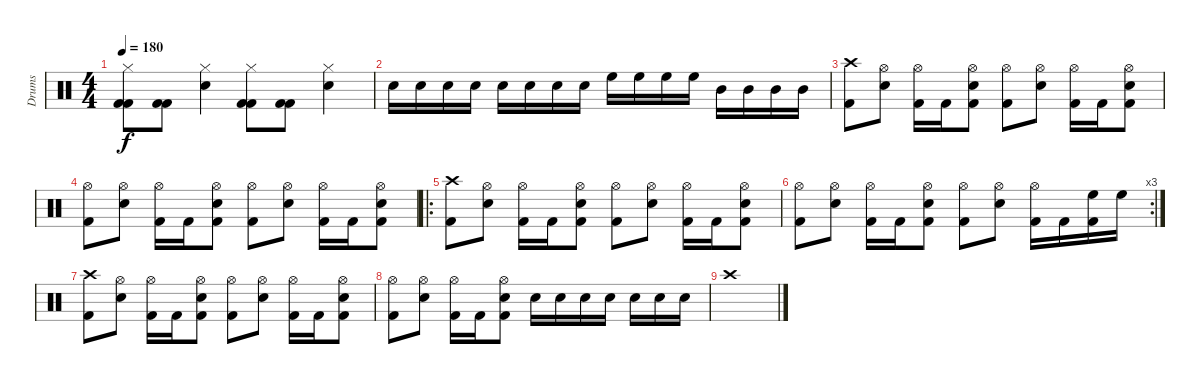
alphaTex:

\track ("Drums" "Drums") {instrument percussion}
\staff {score}
\articulation defaults
\ts (4 4)
\tempo 180
\clef neutral
\ks c
("Hi-Hat (closed)" "Kick (hit) 2" "Kick (hit) 2").8{dy f} ("Kick (hit) 2" "Kick (hit) 2").8 ("Hi-Hat (closed)" "Snare (hit) 2").4 ("Hi-Hat (closed)" "Kick (hit) 2" "Kick (hit) 2").8 ("Kick (hit) 2" "Kick (hit) 2").8 ("Hi-Hat (closed)" "Snare (hit) 2").4 |
"Snare (hit) 2".16 "Snare (hit) 2".16 "Snare (hit) 2".16 "Snare (hit) 2".16 "Snare (hit) 2".16 "Snare (hit) 2".16 "Snare (hit) 2".16 "Snare (hit) 2".16 "High Floor Tom (hit)".16 "High Floor Tom (hit)".16 "High Floor Tom (hit)".16 "High Floor Tom (hit)".16 "Mid Tom (hit)".16 "Mid Tom (hit)".16 "Mid Tom (hit)".16 "Mid Tom (hit)".16 |
("Crash high (hit)" "Kick (hit) 2").8 ("Hi-Hat (open)" "Snare (hit) 2").8 ("Hi-Hat (open)" "Kick (hit) 2").16 "Kick (hit) 2".16 ("Hi-Hat (open)" "Snare (hit) 2" "Kick (hit) 2").8 ("Hi-Hat (open)" "Kick (hit) 2").8 ("Hi-Hat (open)" "Snare (hit) 2").8 ("Hi-Hat (open)" "Kick (hit) 2").16 "Kick (hit) 2".16 ("Hi-Hat (open)" "Snare (hit) 2" "Kick (hit) 2").8 |
("Hi-Hat (open)" "Kick (hit) 2").8 ("Hi-Hat (open)" "Snare (hit) 2").8 ("Hi-Hat (open)" "Kick (hit) 2").16 "Kick (hit) 2".16 ("Hi-Hat (open)" "Snare (hit) 2" "Kick (hit) 2").8 ("Hi-Hat (open)" "Kick (hit) 2").8 ("Hi-Hat (open)" "Snare (hit) 2").8 ("Hi-Hat (open)" "Kick (hit) 2").16 "Kick (hit) 2".16 ("Hi-Hat (open)" "Snare (hit) 2" "Kick (hit) 2").8 |
\ro
("Crash high (hit)" "Kick (hit) 2").8 ("Hi-Hat (open)" "Snare (hit) 2").8 ("Hi-Hat (open)" "Kick (hit) 2").16 "Kick (hit) 2".16 ("Hi-Hat (open)" "Snare (hit) 2" "Kick (hit) 2").8 ("Hi-Hat (open)" "Kick (hit) 2").8 ("Hi-Hat (open)" "Snare (hit) 2").8 ("Hi-Hat (open)" "Kick (hit) 2").16 "Kick (hit) 2".16 ("Hi-Hat (open)" "Snare (hit) 2" "Kick (hit) 2").8 |
\rc 3
("Hi-Hat (open)" "Kick (hit) 2").8 ("Hi-Hat (open)" "Snare (hit) 2").8 ("Hi-Hat (open)" "Kick (hit) 2").16 "Kick (hit) 2".16 ("Hi-Hat (open)" "Snare (hit) 2" "Kick (hit) 2").8 ("Hi-Hat (open)" "Kick (hit) 2").8 ("Hi-Hat (open)" "Snare (hit) 2").8 ("Hi-Hat (open)" "Kick (hit) 2").16 "Kick (hit) 2".16 ("High Floor Tom (hit)" "Kick (hit) 2").16 "High Floor Tom (hit)".16 |
("Crash high (hit)" "Kick (hit) 2").8 ("Hi-Hat (open)" "Snare (hit) 2").8 ("Hi-Hat (open)" "Kick (hit) 2").16 "Kick (hit) 2".16 ("Hi-Hat (open)" "Snare (hit) 2" "Kick (hit) 2").8 ("Hi-Hat (open)" "Kick (hit) 2").8 ("Hi-Hat (open)" "Snare (hit) 2").8 ("Hi-Hat (open)" "Kick (hit) 2").16 "Kick (hit) 2".16 ("Hi-Hat (open)" "Snare (hit) 2" "Kick (hit) 2").8 |
("Hi-Hat (open)" "Kick (hit) 2").8 ("Hi-Hat (open)" "Snare (hit) 2").8 ("Hi-Hat (open)" "Kick (hit) 2").16 "Kick (hit) 2".16 ("Hi-Hat (open)" "Snare (hit) 2" "Kick (hit) 2").8 "Snare (hit) 2".16 "Snare (hit) 2".16 "Snare (hit) 2".16 "Snare (hit) 2".16 "Snare (hit) 2".16 "Snare (hit) 2".16 "Snare (hit) 2".16 |
"Crash high (hit)".1
